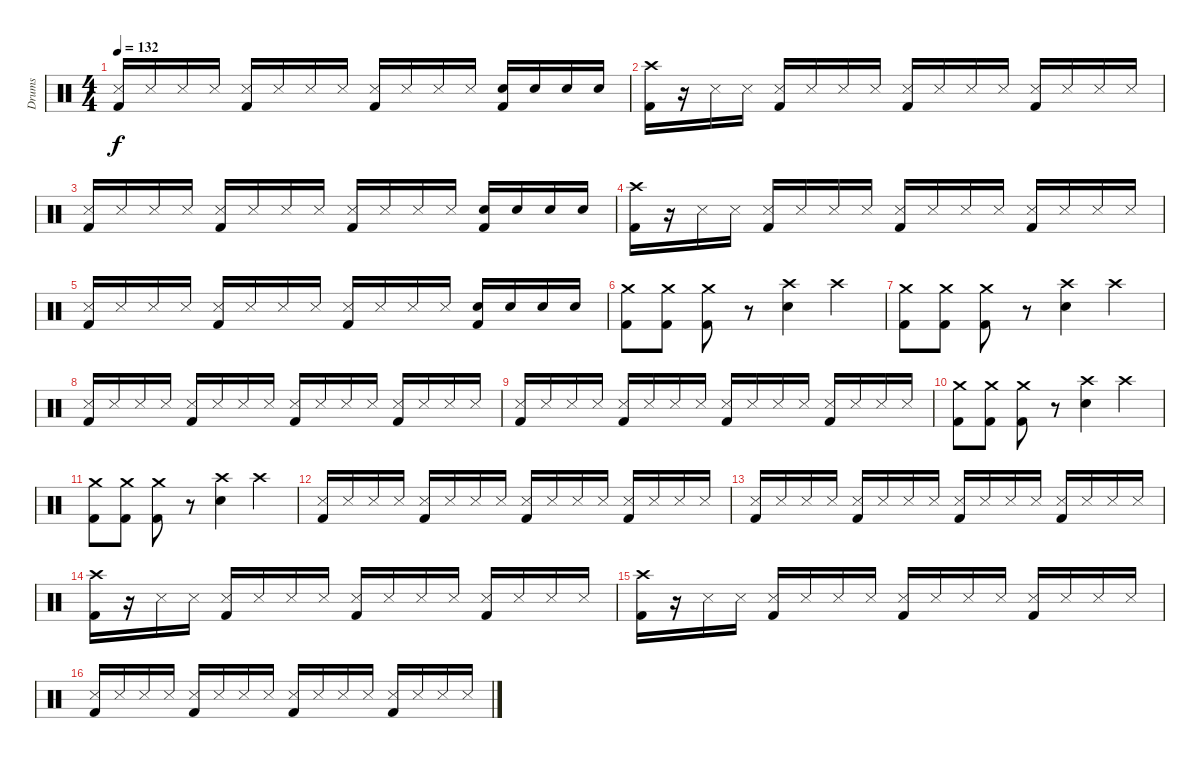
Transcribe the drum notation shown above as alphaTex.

\track ("Drums" "Drums") {instrument percussion}
\staff {score}
\articulation defaults
\ts (4 4)
\tempo 132
\clef neutral
\ks c
("Snare (side stick) 3" "Kick (hit) 2").16{dy f} "Snare (side stick) 3".16 "Snare (side stick) 3".16 "Snare (side stick) 3".16 ("Snare (side stick) 3" "Kick (hit) 2").16 "Snare (side stick) 3".16 "Snare (side stick) 3".16 "Snare (side stick) 3".16 ("Snare (side stick) 3" "Kick (hit) 2").16 "Snare (side stick) 3".16 "Snare (side stick) 3".16 "Snare (side stick) 3".16 ("Electric Snare (hit)" "Kick (hit) 2").16 "Electric Snare (hit)".16 "Electric Snare (hit)".16 "Electric Snare (hit)".16 |
("Crash high (hit)" "Kick (hit) 2").16 r.16 "Snare (side stick) 3".16 "Snare (side stick) 3".16 ("Snare (side stick) 3" "Kick (hit) 2").16 "Snare (side stick) 3".16 "Snare (side stick) 3".16 "Snare (side stick) 3".16 ("Snare (side stick) 3" "Kick (hit) 2").16 "Snare (side stick) 3".16 "Snare (side stick) 3".16 "Snare (side stick) 3".16 ("Snare (side stick) 3" "Kick (hit) 2").16 "Snare (side stick) 3".16 "Snare (side stick) 3".16 "Snare (side stick) 3".16 |
("Snare (side stick) 3" "Kick (hit) 2").16 "Snare (side stick) 3".16 "Snare (side stick) 3".16 "Snare (side stick) 3".16 ("Snare (side stick) 3" "Kick (hit) 2").16 "Snare (side stick) 3".16 "Snare (side stick) 3".16 "Snare (side stick) 3".16 ("Snare (side stick) 3" "Kick (hit) 2").16 "Snare (side stick) 3".16 "Snare (side stick) 3".16 "Snare (side stick) 3".16 ("Electric Snare (hit)" "Kick (hit) 2").16 "Electric Snare (hit)".16 "Electric Snare (hit)".16 "Electric Snare (hit)".16 |
("Crash high (hit)" "Kick (hit) 2").16 r.16 "Snare (side stick) 3".16 "Snare (side stick) 3".16 ("Snare (side stick) 3" "Kick (hit) 2").16 "Snare (side stick) 3".16 "Snare (side stick) 3".16 "Snare (side stick) 3".16 ("Snare (side stick) 3" "Kick (hit) 2").16 "Snare (side stick) 3".16 "Snare (side stick) 3".16 "Snare (side stick) 3".16 ("Snare (side stick) 3" "Kick (hit) 2").16 "Snare (side stick) 3".16 "Snare (side stick) 3".16 "Snare (side stick) 3".16 |
("Snare (side stick) 3" "Kick (hit) 2").16 "Snare (side stick) 3".16 "Snare (side stick) 3".16 "Snare (side stick) 3".16 ("Snare (side stick) 3" "Kick (hit) 2").16 "Snare (side stick) 3".16 "Snare (side stick) 3".16 "Snare (side stick) 3".16 ("Snare (side stick) 3" "Kick (hit) 2").16 "Snare (side stick) 3".16 "Snare (side stick) 3".16 "Snare (side stick) 3".16 ("Electric Snare (hit)" "Kick (hit) 2").16 "Electric Snare (hit)".16 "Electric Snare (hit)".16 "Electric Snare (hit)".16 |
("Crash medium (hit)" "Kick (hit) 2").8 ("Crash medium (hit)" "Kick (hit) 2").8 ("Crash medium (hit)" "Kick (hit) 2").8 r.8 ("Crash high (hit)" "Electric Snare (hit)").4 "Crash high (hit)".4 |
("Crash medium (hit)" "Kick (hit) 2").8 ("Crash medium (hit)" "Kick (hit) 2").8 ("Crash medium (hit)" "Kick (hit) 2").8 r.8 ("Crash high (hit)" "Electric Snare (hit)").4 "Crash high (hit)".4 |
("Snare (side stick) 3" "Kick (hit) 2").16 "Snare (side stick) 3".16 "Snare (side stick) 3".16 "Snare (side stick) 3".16 ("Snare (side stick) 3" "Kick (hit) 2").16 "Snare (side stick) 3".16 "Snare (side stick) 3".16 "Snare (side stick) 3".16 ("Snare (side stick) 3" "Kick (hit) 2").16 "Snare (side stick) 3".16 "Snare (side stick) 3".16 "Snare (side stick) 3".16 ("Snare (side stick) 3" "Kick (hit) 2").16 "Snare (side stick) 3".16 "Snare (side stick) 3".16 "Snare (side stick) 3".16 |
("Snare (side stick) 3" "Kick (hit) 2").16 "Snare (side stick) 3".16 "Snare (side stick) 3".16 "Snare (side stick) 3".16 ("Snare (side stick) 3" "Kick (hit) 2").16 "Snare (side stick) 3".16 "Snare (side stick) 3".16 "Snare (side stick) 3".16 ("Snare (side stick) 3" "Kick (hit) 2").16 "Snare (side stick) 3".16 "Snare (side stick) 3".16 "Snare (side stick) 3".16 ("Snare (side stick) 3" "Kick (hit) 2").16 "Snare (side stick) 3".16 "Snare (side stick) 3".16 "Snare (side stick) 3".16 |
("Crash medium (hit)" "Kick (hit) 2").8 ("Crash medium (hit)" "Kick (hit) 2").8 ("Crash medium (hit)" "Kick (hit) 2").8 r.8 ("Crash high (hit)" "Electric Snare (hit)").4 "Crash high (hit)".4 |
("Crash medium (hit)" "Kick (hit) 2").8 ("Crash medium (hit)" "Kick (hit) 2").8 ("Crash medium (hit)" "Kick (hit) 2").8 r.8 ("Crash high (hit)" "Electric Snare (hit)").4 "Crash high (hit)".4 |
("Snare (side stick) 3" "Kick (hit) 2").16 "Snare (side stick) 3".16 "Snare (side stick) 3".16 "Snare (side stick) 3".16 ("Snare (side stick) 3" "Kick (hit) 2").16 "Snare (side stick) 3".16 "Snare (side stick) 3".16 "Snare (side stick) 3".16 ("Snare (side stick) 3" "Kick (hit) 2").16 "Snare (side stick) 3".16 "Snare (side stick) 3".16 "Snare (side stick) 3".16 ("Snare (side stick) 3" "Kick (hit) 2").16 "Snare (side stick) 3".16 "Snare (side stick) 3".16 "Snare (side stick) 3".16 |
("Snare (side stick) 3" "Kick (hit) 2").16 "Snare (side stick) 3".16 "Snare (side stick) 3".16 "Snare (side stick) 3".16 ("Snare (side stick) 3" "Kick (hit) 2").16 "Snare (side stick) 3".16 "Snare (side stick) 3".16 "Snare (side stick) 3".16 ("Snare (side stick) 3" "Kick (hit) 2").16 "Snare (side stick) 3".16 "Snare (side stick) 3".16 "Snare (side stick) 3".16 ("Snare (side stick) 3" "Kick (hit) 2").16 "Snare (side stick) 3".16 "Snare (side stick) 3".16 "Snare (side stick) 3".16 |
("Crash high (hit)" "Kick (hit) 2").16 r.16 "Snare (side stick) 3".16 "Snare (side stick) 3".16 ("Snare (side stick) 3" "Kick (hit) 2").16 "Snare (side stick) 3".16 "Snare (side stick) 3".16 "Snare (side stick) 3".16 ("Snare (side stick) 3" "Kick (hit) 2").16 "Snare (side stick) 3".16 "Snare (side stick) 3".16 "Snare (side stick) 3".16 ("Snare (side stick) 3" "Kick (hit) 2").16 "Snare (side stick) 3".16 "Snare (side stick) 3".16 "Snare (side stick) 3".16 |
("Crash high (hit)" "Kick (hit) 2").16 r.16 "Snare (side stick) 3".16 "Snare (side stick) 3".16 ("Snare (side stick) 3" "Kick (hit) 2").16 "Snare (side stick) 3".16 "Snare (side stick) 3".16 "Snare (side stick) 3".16 ("Snare (side stick) 3" "Kick (hit) 2").16 "Snare (side stick) 3".16 "Snare (side stick) 3".16 "Snare (side stick) 3".16 ("Snare (side stick) 3" "Kick (hit) 2").16 "Snare (side stick) 3".16 "Snare (side stick) 3".16 "Snare (side stick) 3".16 |
("Snare (side stick) 3" "Kick (hit) 2").16 "Snare (side stick) 3".16 "Snare (side stick) 3".16 "Snare (side stick) 3".16 ("Snare (side stick) 3" "Kick (hit) 2").16 "Snare (side stick) 3".16 "Snare (side stick) 3".16 "Snare (side stick) 3".16 ("Snare (side stick) 3" "Kick (hit) 2").16 "Snare (side stick) 3".16 "Snare (side stick) 3".16 "Snare (side stick) 3".16 ("Snare (side stick) 3" "Kick (hit) 2").16 "Snare (side stick) 3".16 "Snare (side stick) 3".16 "Snare (side stick) 3".16
